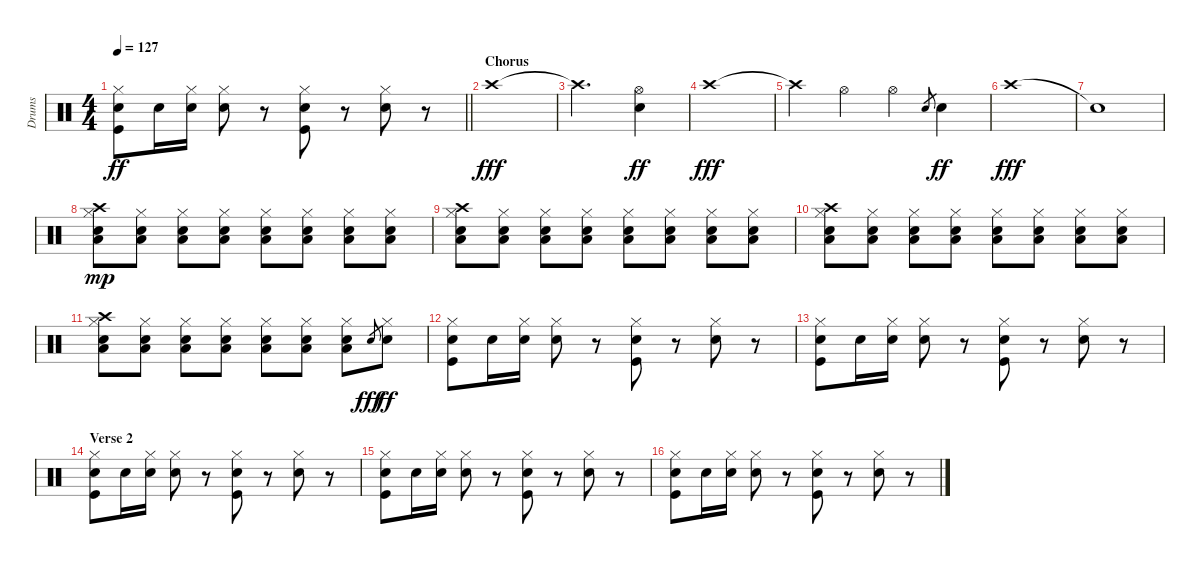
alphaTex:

\track ("Drums" "Drums") {instrument percussion}
\staff {score}
\articulation defaults
\ts (4 4)
\tempo 127
\clef neutral
\barLineRight lightlight
\ks c
("Hi-Hat (closed)" "Electric Snare (hit)" "Kick (hit)").8{dy ff} "Electric Snare (hit)".16 ("Hi-Hat (closed)" "Electric Snare (hit)").16 ("Hi-Hat (closed)" "Electric Snare (hit)").8 r.8 ("Hi-Hat (closed)" "Electric Snare (hit)" "Kick (hit)").8 r.8 ("Hi-Hat (closed)" "Electric Snare (hit)").8 r.8 |
\section ("" "Chorus")
"Crash high (hit)".1{dy fff} |
"Crash high (hit)"{t}.2{d} ("Hi-Hat (open)" "Electric Snare (hit)").4{dy ff} |
"Crash high (hit)".1{dy fff} |
"Crash high (hit)"{t}.4 "Hi-Hat (open)".4 "Hi-Hat (open)".4 "Electric Snare (hit)".8{gr} "Electric Snare (hit)".4{dy ff} |
"Crash high (hit)".1{dy fff} |
"Snare (hit)"{t}.1 |
("Crash high (hit)" "Hi-Hat (closed)" "Electric Snare (hit)" "Low Floor Tom (hit)").8{dy mp} ("Hi-Hat (closed)" "Electric Snare (hit)" "Low Floor Tom (hit)").8 ("Hi-Hat (closed)" "Electric Snare (hit)" "Low Floor Tom (hit)").8 ("Hi-Hat (closed)" "Electric Snare (hit)" "Low Floor Tom (hit)").8 ("Hi-Hat (closed)" "Electric Snare (hit)" "Low Floor Tom (hit)").8 ("Hi-Hat (closed)" "Electric Snare (hit)" "Low Floor Tom (hit)").8 ("Hi-Hat (closed)" "Electric Snare (hit)" "Low Floor Tom (hit)").8 ("Hi-Hat (closed)" "Electric Snare (hit)" "Low Floor Tom (hit)").8 |
("Crash high (hit)" "Hi-Hat (closed)" "Electric Snare (hit)" "Low Floor Tom (hit)").8 ("Hi-Hat (closed)" "Electric Snare (hit)" "Low Floor Tom (hit)").8 ("Hi-Hat (closed)" "Electric Snare (hit)" "Low Floor Tom (hit)").8 ("Hi-Hat (closed)" "Electric Snare (hit)" "Low Floor Tom (hit)").8 ("Hi-Hat (closed)" "Electric Snare (hit)" "Low Floor Tom (hit)").8 ("Hi-Hat (closed)" "Electric Snare (hit)" "Low Floor Tom (hit)").8 ("Hi-Hat (closed)" "Electric Snare (hit)" "Low Floor Tom (hit)").8 ("Hi-Hat (closed)" "Electric Snare (hit)" "Low Floor Tom (hit)").8 |
("Crash high (hit)" "Hi-Hat (closed)" "Electric Snare (hit)" "Low Floor Tom (hit)").8 ("Hi-Hat (closed)" "Electric Snare (hit)" "Low Floor Tom (hit)").8 ("Hi-Hat (closed)" "Electric Snare (hit)" "Low Floor Tom (hit)").8 ("Hi-Hat (closed)" "Electric Snare (hit)" "Low Floor Tom (hit)").8 ("Hi-Hat (closed)" "Electric Snare (hit)" "Low Floor Tom (hit)").8 ("Hi-Hat (closed)" "Electric Snare (hit)" "Low Floor Tom (hit)").8 ("Hi-Hat (closed)" "Electric Snare (hit)" "Low Floor Tom (hit)").8 ("Hi-Hat (closed)" "Electric Snare (hit)" "Low Floor Tom (hit)").8 |
("Crash high (hit)" "Hi-Hat (closed)" "Electric Snare (hit)" "Low Floor Tom (hit)").8 ("Hi-Hat (closed)" "Electric Snare (hit)" "Low Floor Tom (hit)").8 ("Hi-Hat (closed)" "Electric Snare (hit)" "Low Floor Tom (hit)").8 ("Hi-Hat (closed)" "Electric Snare (hit)" "Low Floor Tom (hit)").8 ("Hi-Hat (closed)" "Electric Snare (hit)" "Low Floor Tom (hit)").8 ("Hi-Hat (closed)" "Electric Snare (hit)" "Low Floor Tom (hit)").8 ("Hi-Hat (closed)" "Electric Snare (hit)" "Low Floor Tom (hit)").8 "Electric Snare (hit)".8{gr dy fff} ("Hi-Hat (closed)" "Electric Snare (hit)").8{dy ff} |
("Hi-Hat (closed)" "Electric Snare (hit)" "Kick (hit)").8 "Electric Snare (hit)".16 ("Hi-Hat (closed)" "Electric Snare (hit)").16 ("Hi-Hat (closed)" "Electric Snare (hit)").8 r.8 ("Hi-Hat (closed)" "Electric Snare (hit)" "Kick (hit)").8 r.8 ("Hi-Hat (closed)" "Electric Snare (hit)").8 r.8 |
("Hi-Hat (closed)" "Electric Snare (hit)" "Kick (hit)").8 "Electric Snare (hit)".16 ("Hi-Hat (closed)" "Electric Snare (hit)").16 ("Hi-Hat (closed)" "Electric Snare (hit)").8 r.8 ("Hi-Hat (closed)" "Electric Snare (hit)" "Kick (hit)").8 r.8 ("Hi-Hat (closed)" "Electric Snare (hit)").8 r.8 |
\section ("" "Verse 2")
("Hi-Hat (closed)" "Electric Snare (hit)" "Kick (hit)").8 "Electric Snare (hit)".16 ("Hi-Hat (closed)" "Electric Snare (hit)").16 ("Hi-Hat (closed)" "Electric Snare (hit)").8 r.8 ("Hi-Hat (closed)" "Electric Snare (hit)" "Kick (hit)").8 r.8 ("Hi-Hat (closed)" "Electric Snare (hit)").8 r.8 |
("Hi-Hat (closed)" "Electric Snare (hit)" "Kick (hit)").8 "Electric Snare (hit)".16 ("Hi-Hat (closed)" "Electric Snare (hit)").16 ("Hi-Hat (closed)" "Electric Snare (hit)").8 r.8 ("Hi-Hat (closed)" "Electric Snare (hit)" "Kick (hit)").8 r.8 ("Hi-Hat (closed)" "Electric Snare (hit)").8 r.8 |
("Hi-Hat (closed)" "Electric Snare (hit)" "Kick (hit)").8 "Electric Snare (hit)".16 ("Hi-Hat (closed)" "Electric Snare (hit)").16 ("Hi-Hat (closed)" "Electric Snare (hit)").8 r.8 ("Hi-Hat (closed)" "Electric Snare (hit)" "Kick (hit)").8 r.8 ("Hi-Hat (closed)" "Electric Snare (hit)").8 r.8
